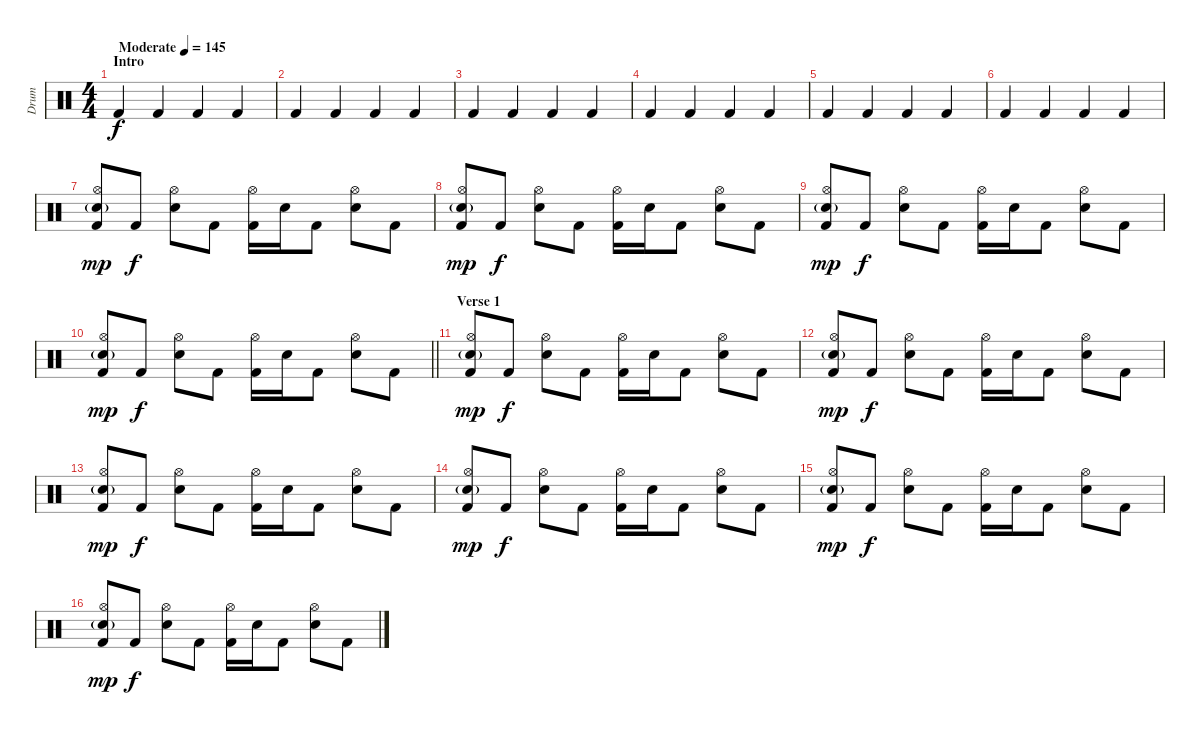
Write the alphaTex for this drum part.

\track ("Drum" "Drum") {instrument percussion}
\staff {score}
\articulation defaults
\ts (4 4)
\section ("" "Intro")
\tempo (145 "Moderate")
\clef neutral
\ks c "Kick (hit) 2".4{dy f} "Kick (hit) 2".4 "Kick (hit) 2".4 "Kick (hit) 2".4
|
"Kick (hit) 2".4 "Kick (hit) 2".4 "Kick (hit) 2".4 "Kick (hit) 2".4 |
"Kick (hit) 2".4 "Kick (hit) 2".4 "Kick (hit) 2".4 "Kick (hit) 2".4 |
"Kick (hit) 2".4 "Kick (hit) 2".4 "Kick (hit) 2".4 "Kick (hit) 2".4 |
"Kick (hit) 2".4 "Kick (hit) 2".4 "Kick (hit) 2".4 "Kick (hit) 2".4 |
"Kick (hit) 2".4 "Kick (hit) 2".4 "Kick (hit) 2".4 "Kick (hit) 2".4 |
("Hi-Hat (open)" "Electric Snare (hit)"{g} "Kick (hit) 2").8{dy mp} "Kick (hit) 2".8{dy f} ("Hi-Hat (open)" "Electric Snare (hit)").8 "Kick (hit) 2".8 ("Hi-Hat (open)" "Kick (hit) 2").16 "Electric Snare (hit)".16 "Kick (hit) 2".8 ("Hi-Hat (open)" "Electric Snare (hit)").8 "Kick (hit) 2".8 |
("Hi-Hat (open)" "Electric Snare (hit)"{g} "Kick (hit) 2").8{dy mp} "Kick (hit) 2".8{dy f} ("Hi-Hat (open)" "Electric Snare (hit)").8 "Kick (hit) 2".8 ("Hi-Hat (open)" "Kick (hit) 2").16 "Electric Snare (hit)".16 "Kick (hit) 2".8 ("Hi-Hat (open)" "Electric Snare (hit)").8 "Kick (hit) 2".8 |
("Hi-Hat (open)" "Electric Snare (hit)"{g} "Kick (hit) 2").8{dy mp} "Kick (hit) 2".8{dy f} ("Hi-Hat (open)" "Electric Snare (hit)").8 "Kick (hit) 2".8 ("Hi-Hat (open)" "Kick (hit) 2").16 "Electric Snare (hit)".16 "Kick (hit) 2".8 ("Hi-Hat (open)" "Electric Snare (hit)").8 "Kick (hit) 2".8 |
\barLineRight lightlight
("Hi-Hat (open)" "Electric Snare (hit)"{g} "Kick (hit) 2").8{dy mp} "Kick (hit) 2".8{dy f} ("Hi-Hat (open)" "Electric Snare (hit)").8 "Kick (hit) 2".8 ("Hi-Hat (open)" "Kick (hit) 2").16 "Electric Snare (hit)".16 "Kick (hit) 2".8 ("Hi-Hat (open)" "Electric Snare (hit)").8 "Kick (hit) 2".8 |
\section ("" "Verse 1")
("Hi-Hat (open)" "Electric Snare (hit)"{g} "Kick (hit) 2").8{dy mp} "Kick (hit) 2".8{dy f} ("Hi-Hat (open)" "Electric Snare (hit)").8 "Kick (hit) 2".8 ("Hi-Hat (open)" "Kick (hit) 2").16 "Electric Snare (hit)".16 "Kick (hit) 2".8 ("Hi-Hat (open)" "Electric Snare (hit)").8 "Kick (hit) 2".8 |
("Hi-Hat (open)" "Electric Snare (hit)"{g} "Kick (hit) 2").8{dy mp} "Kick (hit) 2".8{dy f} ("Hi-Hat (open)" "Electric Snare (hit)").8 "Kick (hit) 2".8 ("Hi-Hat (open)" "Kick (hit) 2").16 "Electric Snare (hit)".16 "Kick (hit) 2".8 ("Hi-Hat (open)" "Electric Snare (hit)").8 "Kick (hit) 2".8 |
("Hi-Hat (open)" "Electric Snare (hit)"{g} "Kick (hit) 2").8{dy mp} "Kick (hit) 2".8{dy f} ("Hi-Hat (open)" "Electric Snare (hit)").8 "Kick (hit) 2".8 ("Hi-Hat (open)" "Kick (hit) 2").16 "Electric Snare (hit)".16 "Kick (hit) 2".8 ("Hi-Hat (open)" "Electric Snare (hit)").8 "Kick (hit) 2".8 |
("Hi-Hat (open)" "Electric Snare (hit)"{g} "Kick (hit) 2").8{dy mp} "Kick (hit) 2".8{dy f} ("Hi-Hat (open)" "Electric Snare (hit)").8 "Kick (hit) 2".8 ("Hi-Hat (open)" "Kick (hit) 2").16 "Electric Snare (hit)".16 "Kick (hit) 2".8 ("Hi-Hat (open)" "Electric Snare (hit)").8 "Kick (hit) 2".8 |
("Hi-Hat (open)" "Electric Snare (hit)"{g} "Kick (hit) 2").8{dy mp} "Kick (hit) 2".8{dy f} ("Hi-Hat (open)" "Electric Snare (hit)").8 "Kick (hit) 2".8 ("Hi-Hat (open)" "Kick (hit) 2").16 "Electric Snare (hit)".16 "Kick (hit) 2".8 ("Hi-Hat (open)" "Electric Snare (hit)").8 "Kick (hit) 2".8 |
("Hi-Hat (open)" "Electric Snare (hit)"{g} "Kick (hit) 2").8{dy mp} "Kick (hit) 2".8{dy f} ("Hi-Hat (open)" "Electric Snare (hit)").8 "Kick (hit) 2".8 ("Hi-Hat (open)" "Kick (hit) 2").16 "Electric Snare (hit)".16 "Kick (hit) 2".8 ("Hi-Hat (open)" "Electric Snare (hit)").8 "Kick (hit) 2".8
